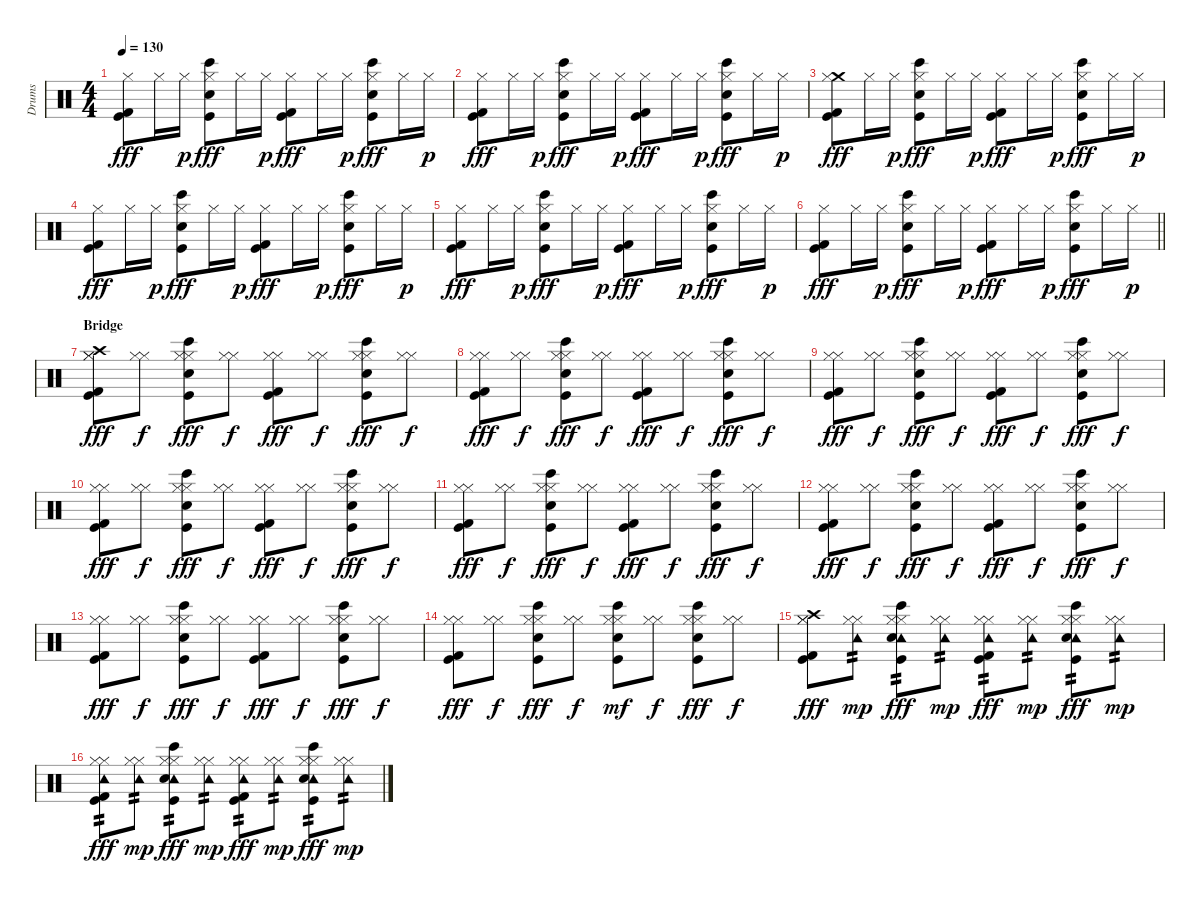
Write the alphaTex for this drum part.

\track ("Drums" "Drums") {instrument percussion}
\staff {score}
\articulation defaults
\ts (4 4)
\tempo 130
\clef neutral
\ks c
("Hi-Hat (closed)" "Kick (hit) 2" "Kick (hit)").8{dy fff} "Hi-Hat (closed)".16 "Hi-Hat (closed)".16{dy p} ("Bongo High (hit)" "Hi-Hat (closed)" "Snare (hit) 2" "Kick (hit)").8{dy fff} "Hi-Hat (closed)".16 "Hi-Hat (closed)".16{dy p} ("Hi-Hat (closed)" "Kick (hit) 2" "Kick (hit)").8{dy fff} "Hi-Hat (closed)".16 "Hi-Hat (closed)".16{dy p} ("Bongo High (hit)" "Hi-Hat (closed)" "Snare (hit) 2" "Kick (hit)").8{dy fff} "Hi-Hat (closed)".16 "Hi-Hat (closed)".16{dy p} |
("Hi-Hat (closed)" "Kick (hit) 2" "Kick (hit)").8{dy fff} "Hi-Hat (closed)".16 "Hi-Hat (closed)".16{dy p} ("Bongo High (hit)" "Hi-Hat (closed)" "Snare (hit) 2" "Kick (hit)").8{dy fff} "Hi-Hat (closed)".16 "Hi-Hat (closed)".16{dy p} ("Hi-Hat (closed)" "Kick (hit) 2" "Kick (hit)").8{dy fff} "Hi-Hat (closed)".16 "Hi-Hat (closed)".16{dy p} ("Bongo High (hit)" "Hi-Hat (closed)" "Snare (hit) 2" "Kick (hit)").8{dy fff} "Hi-Hat (closed)".16 "Hi-Hat (closed)".16{dy p} |
("Crash medium (hit)" "Hi-Hat (closed)" "Kick (hit) 2" "Kick (hit)").8{dy fff} "Hi-Hat (closed)".16 "Hi-Hat (closed)".16{dy p} ("Bongo High (hit)" "Hi-Hat (closed)" "Snare (hit) 2" "Kick (hit)").8{dy fff} "Hi-Hat (closed)".16 "Hi-Hat (closed)".16{dy p} ("Hi-Hat (closed)" "Kick (hit) 2" "Kick (hit)").8{dy fff} "Hi-Hat (closed)".16 "Hi-Hat (closed)".16{dy p} ("Bongo High (hit)" "Hi-Hat (closed)" "Snare (hit) 2" "Kick (hit)").8{dy fff} "Hi-Hat (closed)".16 "Hi-Hat (closed)".16{dy p} |
("Hi-Hat (closed)" "Kick (hit) 2" "Kick (hit)").8{dy fff} "Hi-Hat (closed)".16 "Hi-Hat (closed)".16{dy p} ("Bongo High (hit)" "Hi-Hat (closed)" "Snare (hit) 2" "Kick (hit)").8{dy fff} "Hi-Hat (closed)".16 "Hi-Hat (closed)".16{dy p} ("Hi-Hat (closed)" "Kick (hit) 2" "Kick (hit)").8{dy fff} "Hi-Hat (closed)".16 "Hi-Hat (closed)".16{dy p} ("Bongo High (hit)" "Hi-Hat (closed)" "Snare (hit) 2" "Kick (hit)").8{dy fff} "Hi-Hat (closed)".16 "Hi-Hat (closed)".16{dy p} |
("Hi-Hat (closed)" "Kick (hit) 2" "Kick (hit)").8{dy fff} "Hi-Hat (closed)".16 "Hi-Hat (closed)".16{dy p} ("Bongo High (hit)" "Hi-Hat (closed)" "Snare (hit) 2" "Kick (hit)").8{dy fff} "Hi-Hat (closed)".16 "Hi-Hat (closed)".16{dy p} ("Hi-Hat (closed)" "Kick (hit) 2" "Kick (hit)").8{dy fff} "Hi-Hat (closed)".16 "Hi-Hat (closed)".16{dy p} ("Bongo High (hit)" "Hi-Hat (closed)" "Snare (hit) 2" "Kick (hit)").8{dy fff} "Hi-Hat (closed)".16 "Hi-Hat (closed)".16{dy p} |
\barLineRight lightlight
("Hi-Hat (closed)" "Kick (hit) 2" "Kick (hit)").8{dy fff} "Hi-Hat (closed)".16 "Hi-Hat (closed)".16{dy p} ("Bongo High (hit)" "Hi-Hat (closed)" "Snare (hit) 2" "Kick (hit)").8{dy fff} "Hi-Hat (closed)".16 "Hi-Hat (closed)".16{dy p} ("Hi-Hat (closed)" "Kick (hit) 2" "Kick (hit)").8{dy fff} "Hi-Hat (closed)".16 "Hi-Hat (closed)".16{dy p} ("Bongo High (hit)" "Hi-Hat (closed)" "Snare (hit) 2" "Kick (hit)").8{dy fff} "Hi-Hat (closed)".16 "Hi-Hat (closed)".16{dy p} |
\section ("" "Bridge")
("Crash high (hit)" "Hi-Hat (closed)" "Hi-Hat (closed)" "Kick (hit) 2" "Kick (hit)").8{dy fff} ("Hi-Hat (closed)" "Hi-Hat (closed)").8{dy f} ("Hi-Hat (closed)" "Bongo High (hit)" "Hi-Hat (closed)" "Snare (hit) 2" "Kick (hit)").8{dy fff} ("Hi-Hat (closed)" "Hi-Hat (closed)").8{dy f} ("Hi-Hat (closed)" "Hi-Hat (closed)" "Kick (hit) 2" "Kick (hit)").8{dy fff} ("Hi-Hat (closed)" "Hi-Hat (closed)").8{dy f} ("Hi-Hat (closed)" "Bongo High (hit)" "Hi-Hat (closed)" "Snare (hit) 2" "Kick (hit)").8{dy fff} ("Hi-Hat (closed)" "Hi-Hat (closed)").8{dy f} |
("Hi-Hat (closed)" "Hi-Hat (closed)" "Kick (hit) 2" "Kick (hit)").8{dy fff} ("Hi-Hat (closed)" "Hi-Hat (closed)").8{dy f} ("Hi-Hat (closed)" "Bongo High (hit)" "Hi-Hat (closed)" "Snare (hit) 2" "Kick (hit)").8{dy fff} ("Hi-Hat (closed)" "Hi-Hat (closed)").8{dy f} ("Hi-Hat (closed)" "Hi-Hat (closed)" "Kick (hit) 2" "Kick (hit)").8{dy fff} ("Hi-Hat (closed)" "Hi-Hat (closed)").8{dy f} ("Hi-Hat (closed)" "Bongo High (hit)" "Hi-Hat (closed)" "Snare (hit) 2" "Kick (hit)").8{dy fff} ("Hi-Hat (closed)" "Hi-Hat (closed)").8{dy f} |
("Hi-Hat (closed)" "Hi-Hat (closed)" "Kick (hit) 2" "Kick (hit)").8{dy fff} ("Hi-Hat (closed)" "Hi-Hat (closed)").8{dy f} ("Hi-Hat (closed)" "Bongo High (hit)" "Hi-Hat (closed)" "Snare (hit) 2" "Kick (hit)").8{dy fff} ("Hi-Hat (closed)" "Hi-Hat (closed)").8{dy f} ("Hi-Hat (closed)" "Hi-Hat (closed)" "Kick (hit) 2" "Kick (hit)").8{dy fff} ("Hi-Hat (closed)" "Hi-Hat (closed)").8{dy f} ("Hi-Hat (closed)" "Bongo High (hit)" "Hi-Hat (closed)" "Snare (hit) 2" "Kick (hit)").8{dy fff} ("Hi-Hat (closed)" "Hi-Hat (closed)").8{dy f} |
("Hi-Hat (closed)" "Hi-Hat (closed)" "Kick (hit) 2" "Kick (hit)").8{dy fff} ("Hi-Hat (closed)" "Hi-Hat (closed)").8{dy f} ("Hi-Hat (closed)" "Bongo High (hit)" "Hi-Hat (closed)" "Snare (hit) 2" "Kick (hit)").8{dy fff} ("Hi-Hat (closed)" "Hi-Hat (closed)").8{dy f} ("Hi-Hat (closed)" "Hi-Hat (closed)" "Kick (hit) 2" "Kick (hit)").8{dy fff} ("Hi-Hat (closed)" "Hi-Hat (closed)").8{dy f} ("Hi-Hat (closed)" "Bongo High (hit)" "Hi-Hat (closed)" "Snare (hit) 2" "Kick (hit)").8{dy fff} ("Hi-Hat (closed)" "Hi-Hat (closed)").8{dy f} |
("Hi-Hat (closed)" "Hi-Hat (closed)" "Kick (hit) 2" "Kick (hit)").8{dy fff} ("Hi-Hat (closed)" "Hi-Hat (closed)").8{dy f} ("Hi-Hat (closed)" "Bongo High (hit)" "Hi-Hat (closed)" "Snare (hit) 2" "Kick (hit)").8{dy fff} ("Hi-Hat (closed)" "Hi-Hat (closed)").8{dy f} ("Hi-Hat (closed)" "Hi-Hat (closed)" "Kick (hit) 2" "Kick (hit)").8{dy fff} ("Hi-Hat (closed)" "Hi-Hat (closed)").8{dy f} ("Hi-Hat (closed)" "Bongo High (hit)" "Hi-Hat (closed)" "Snare (hit) 2" "Kick (hit)").8{dy fff} ("Hi-Hat (closed)" "Hi-Hat (closed)").8{dy f} |
("Hi-Hat (closed)" "Hi-Hat (closed)" "Kick (hit) 2" "Kick (hit)").8{dy fff} ("Hi-Hat (closed)" "Hi-Hat (closed)").8{dy f} ("Hi-Hat (closed)" "Bongo High (hit)" "Hi-Hat (closed)" "Snare (hit) 2" "Kick (hit)").8{dy fff} ("Hi-Hat (closed)" "Hi-Hat (closed)").8{dy f} ("Hi-Hat (closed)" "Hi-Hat (closed)" "Kick (hit) 2" "Kick (hit)").8{dy fff} ("Hi-Hat (closed)" "Hi-Hat (closed)").8{dy f} ("Hi-Hat (closed)" "Bongo High (hit)" "Hi-Hat (closed)" "Snare (hit) 2" "Kick (hit)").8{dy fff} ("Hi-Hat (closed)" "Hi-Hat (closed)").8{dy f} |
("Hi-Hat (closed)" "Hi-Hat (closed)" "Kick (hit) 2" "Kick (hit)").8{dy fff} ("Hi-Hat (closed)" "Hi-Hat (closed)").8{dy f} ("Hi-Hat (closed)" "Bongo High (hit)" "Hi-Hat (closed)" "Snare (hit) 2" "Kick (hit)").8{dy fff} ("Hi-Hat (closed)" "Hi-Hat (closed)").8{dy f} ("Hi-Hat (closed)" "Hi-Hat (closed)" "Kick (hit) 2" "Kick (hit)").8{dy fff} ("Hi-Hat (closed)" "Hi-Hat (closed)").8{dy f} ("Hi-Hat (closed)" "Bongo High (hit)" "Hi-Hat (closed)" "Snare (hit) 2" "Kick (hit)").8{dy fff} ("Hi-Hat (closed)" "Hi-Hat (closed)").8{dy f} |
("Hi-Hat (closed)" "Hi-Hat (closed)" "Kick (hit) 2" "Kick (hit)").8{dy fff} ("Hi-Hat (closed)" "Hi-Hat (closed)").8{dy f} ("Hi-Hat (closed)" "Bongo High (hit)" "Hi-Hat (closed)" "Snare (hit) 2" "Kick (hit)").8{dy fff} ("Hi-Hat (closed)" "Hi-Hat (closed)").8{dy f} ("Hi-Hat (closed)" "Bongo High (hit)" "Hi-Hat (closed)" "Snare (hit) 2" "Kick (hit)").8{dy mf} ("Hi-Hat (closed)" "Hi-Hat (closed)").8{dy f} ("Hi-Hat (closed)" "Bongo High (hit)" "Hi-Hat (closed)" "Snare (hit) 2" "Kick (hit)").8{dy fff} ("Hi-Hat (closed)" "Hi-Hat (closed)").8{dy f} |
("Crash high (hit)" "Hi-Hat (closed)" "Hi-Hat (closed)" "Kick (hit) 2" "Kick (hit)").8{dy fff} ("Tambourine (hit)" "Hi-Hat (closed)" "Hi-Hat (closed)").8{tp 2 dy mp} ("Tambourine (hit)" "Hi-Hat (closed)" "Bongo High (hit)" "Hi-Hat (closed)" "Snare (hit) 2" "Kick (hit)").8{tp 2 dy fff} ("Tambourine (hit)" "Hi-Hat (closed)" "Hi-Hat (closed)").8{tp 2 dy mp} ("Tambourine (hit)" "Hi-Hat (closed)" "Hi-Hat (closed)" "Kick (hit) 2" "Kick (hit)").8{tp 2 dy fff} ("Tambourine (hit)" "Hi-Hat (closed)" "Hi-Hat (closed)").8{tp 2 dy mp} ("Tambourine (hit)" "Hi-Hat (closed)" "Bongo High (hit)" "Hi-Hat (closed)" "Snare (hit) 2" "Kick (hit)").8{tp 2 dy fff} ("Tambourine (hit)" "Hi-Hat (closed)" "Hi-Hat (closed)").8{tp 2 dy mp} |
("Tambourine (hit)" "Hi-Hat (closed)" "Hi-Hat (closed)" "Kick (hit) 2" "Kick (hit)").8{tp 2 dy fff} ("Tambourine (hit)" "Hi-Hat (closed)" "Hi-Hat (closed)").8{tp 2 dy mp} ("Tambourine (hit)" "Hi-Hat (closed)" "Bongo High (hit)" "Hi-Hat (closed)" "Snare (hit) 2" "Kick (hit)").8{tp 2 dy fff} ("Tambourine (hit)" "Hi-Hat (closed)" "Hi-Hat (closed)").8{tp 2 dy mp} ("Tambourine (hit)" "Hi-Hat (closed)" "Hi-Hat (closed)" "Kick (hit) 2" "Kick (hit)").8{tp 2 dy fff} ("Tambourine (hit)" "Hi-Hat (closed)" "Hi-Hat (closed)").8{tp 2 dy mp} ("Tambourine (hit)" "Hi-Hat (closed)" "Bongo High (hit)" "Hi-Hat (closed)" "Snare (hit) 2" "Kick (hit)").8{tp 2 dy fff} ("Tambourine (hit)" "Hi-Hat (closed)" "Hi-Hat (closed)").8{tp 2 dy mp}
